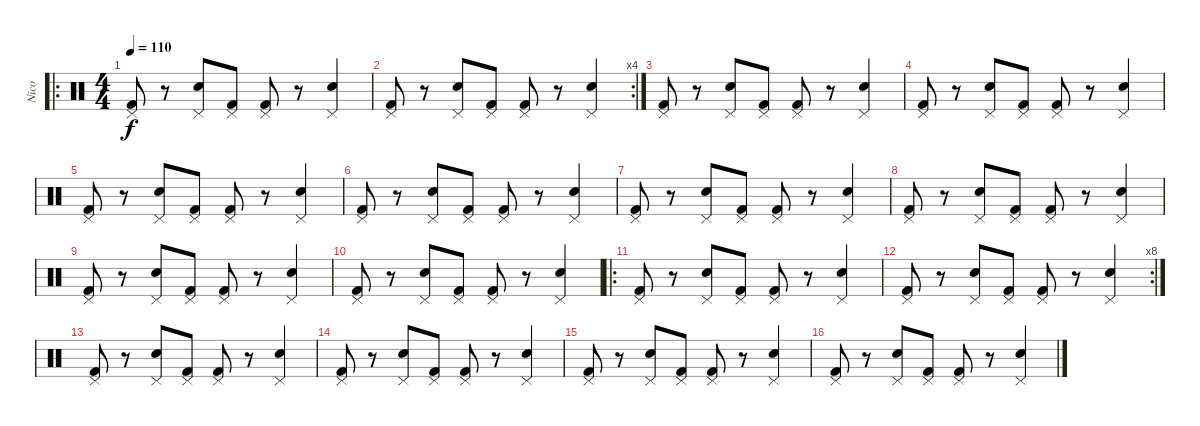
\track ("Nico" "Nico") {instrument percussion}
\staff {score}
\articulation defaults
\ro
\ts (4 4)
\tempo 110
\clef neutral
\ks c
("Pedal Hi-Hat (hit)" "Kick (hit) 2").8{dy f} r.8 ("Pedal Hi-Hat (hit)" "Snare (hit) 2").8 ("Pedal Hi-Hat (hit)" "Kick (hit) 2").8 ("Pedal Hi-Hat (hit)" "Kick (hit) 2").8 r.8 ("Pedal Hi-Hat (hit)" "Snare (hit) 2").4 |
\rc 4
("Pedal Hi-Hat (hit)" "Kick (hit) 2").8 r.8 ("Pedal Hi-Hat (hit)" "Snare (hit) 2").8 ("Pedal Hi-Hat (hit)" "Kick (hit) 2").8 ("Pedal Hi-Hat (hit)" "Kick (hit) 2").8 r.8 ("Pedal Hi-Hat (hit)" "Snare (hit) 2").4 |
("Pedal Hi-Hat (hit)" "Kick (hit) 2").8 r.8 ("Pedal Hi-Hat (hit)" "Snare (hit) 2").8 ("Pedal Hi-Hat (hit)" "Kick (hit) 2").8 ("Pedal Hi-Hat (hit)" "Kick (hit) 2").8 r.8 ("Pedal Hi-Hat (hit)" "Snare (hit) 2").4 |
("Pedal Hi-Hat (hit)" "Kick (hit) 2").8 r.8 ("Pedal Hi-Hat (hit)" "Snare (hit) 2").8 ("Pedal Hi-Hat (hit)" "Kick (hit) 2").8 ("Pedal Hi-Hat (hit)" "Kick (hit) 2").8 r.8 ("Pedal Hi-Hat (hit)" "Snare (hit) 2").4 |
("Pedal Hi-Hat (hit)" "Kick (hit) 2").8 r.8 ("Pedal Hi-Hat (hit)" "Snare (hit) 2").8 ("Pedal Hi-Hat (hit)" "Kick (hit) 2").8 ("Pedal Hi-Hat (hit)" "Kick (hit) 2").8 r.8 ("Pedal Hi-Hat (hit)" "Snare (hit) 2").4 |
("Pedal Hi-Hat (hit)" "Kick (hit) 2").8 r.8 ("Pedal Hi-Hat (hit)" "Snare (hit) 2").8 ("Pedal Hi-Hat (hit)" "Kick (hit) 2").8 ("Pedal Hi-Hat (hit)" "Kick (hit) 2").8 r.8 ("Pedal Hi-Hat (hit)" "Snare (hit) 2").4 |
("Pedal Hi-Hat (hit)" "Kick (hit) 2").8 r.8 ("Pedal Hi-Hat (hit)" "Snare (hit) 2").8 ("Pedal Hi-Hat (hit)" "Kick (hit) 2").8 ("Pedal Hi-Hat (hit)" "Kick (hit) 2").8 r.8 ("Pedal Hi-Hat (hit)" "Snare (hit) 2").4 |
("Pedal Hi-Hat (hit)" "Kick (hit) 2").8 r.8 ("Pedal Hi-Hat (hit)" "Snare (hit) 2").8 ("Pedal Hi-Hat (hit)" "Kick (hit) 2").8 ("Pedal Hi-Hat (hit)" "Kick (hit) 2").8 r.8 ("Pedal Hi-Hat (hit)" "Snare (hit) 2").4 |
("Pedal Hi-Hat (hit)" "Kick (hit) 2").8 r.8 ("Pedal Hi-Hat (hit)" "Snare (hit) 2").8 ("Pedal Hi-Hat (hit)" "Kick (hit) 2").8 ("Pedal Hi-Hat (hit)" "Kick (hit) 2").8 r.8 ("Pedal Hi-Hat (hit)" "Snare (hit) 2").4 |
("Pedal Hi-Hat (hit)" "Kick (hit) 2").8 r.8 ("Pedal Hi-Hat (hit)" "Snare (hit) 2").8 ("Pedal Hi-Hat (hit)" "Kick (hit) 2").8 ("Pedal Hi-Hat (hit)" "Kick (hit) 2").8 r.8 ("Pedal Hi-Hat (hit)" "Snare (hit) 2").4 |
\ro
("Pedal Hi-Hat (hit)" "Kick (hit) 2").8 r.8 ("Pedal Hi-Hat (hit)" "Snare (hit) 2").8 ("Pedal Hi-Hat (hit)" "Kick (hit) 2").8 ("Pedal Hi-Hat (hit)" "Kick (hit) 2").8 r.8 ("Pedal Hi-Hat (hit)" "Snare (hit) 2").4 |
\rc 8
("Pedal Hi-Hat (hit)" "Kick (hit) 2").8 r.8 ("Pedal Hi-Hat (hit)" "Snare (hit) 2").8 ("Pedal Hi-Hat (hit)" "Kick (hit) 2").8 ("Pedal Hi-Hat (hit)" "Kick (hit) 2").8 r.8 ("Pedal Hi-Hat (hit)" "Snare (hit) 2").4 |
("Pedal Hi-Hat (hit)" "Kick (hit) 2").8 r.8 ("Pedal Hi-Hat (hit)" "Snare (hit) 2").8 ("Pedal Hi-Hat (hit)" "Kick (hit) 2").8 ("Pedal Hi-Hat (hit)" "Kick (hit) 2").8 r.8 ("Pedal Hi-Hat (hit)" "Snare (hit) 2").4 |
("Pedal Hi-Hat (hit)" "Kick (hit) 2").8 r.8 ("Pedal Hi-Hat (hit)" "Snare (hit) 2").8 ("Pedal Hi-Hat (hit)" "Kick (hit) 2").8 ("Pedal Hi-Hat (hit)" "Kick (hit) 2").8 r.8 ("Pedal Hi-Hat (hit)" "Snare (hit) 2").4 |
("Pedal Hi-Hat (hit)" "Kick (hit) 2").8 r.8 ("Pedal Hi-Hat (hit)" "Snare (hit) 2").8 ("Pedal Hi-Hat (hit)" "Kick (hit) 2").8 ("Pedal Hi-Hat (hit)" "Kick (hit) 2").8 r.8 ("Pedal Hi-Hat (hit)" "Snare (hit) 2").4 |
("Pedal Hi-Hat (hit)" "Kick (hit) 2").8 r.8 ("Pedal Hi-Hat (hit)" "Snare (hit) 2").8 ("Pedal Hi-Hat (hit)" "Kick (hit) 2").8 ("Pedal Hi-Hat (hit)" "Kick (hit) 2").8 r.8 ("Pedal Hi-Hat (hit)" "Snare (hit) 2").4
